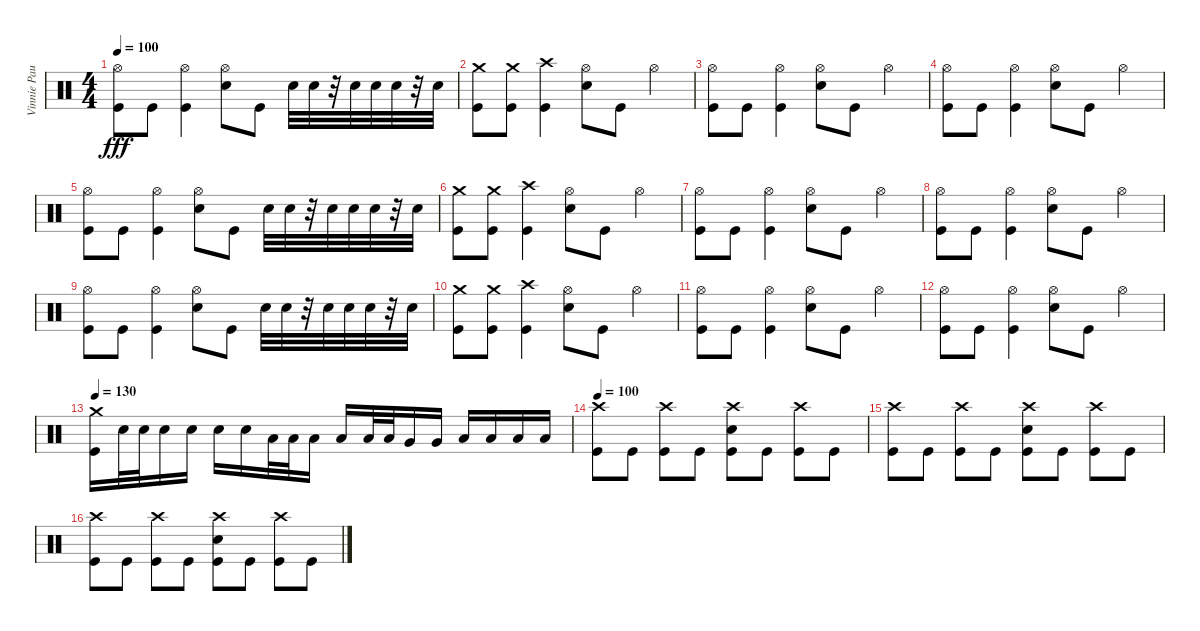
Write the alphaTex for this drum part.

\track ("Vinnie Paul (Drums)" "Vinnie Pau") {instrument percussion}
\staff {score}
\articulation defaults
\ts (4 4)
\tempo 100
\clef neutral
\ks c
("Kick (hit)" "Hi-Hat (open)").8{dy fff} "Kick (hit)".8 ("Kick (hit)" "Hi-Hat (open)").4 ("Electric Snare (hit)" "Hi-Hat (open)").8 "Kick (hit)".8 "Electric Snare (hit)".32 "Electric Snare (hit)".32 r.32 "Electric Snare (hit)".32 "Electric Snare (hit)".32 "Electric Snare (hit)".32 r.32 "Electric Snare (hit)".32 |
("Kick (hit)" "Crash medium (hit)").8 ("Kick (hit)" "Crash medium (hit)").8 ("Kick (hit)" "Crash high (hit)").4 ("Hi-Hat (open)" "Electric Snare (hit)").8 "Kick (hit)".8 "Hi-Hat (open)".4 |
("Kick (hit)" "Hi-Hat (open)").8 "Kick (hit)".8 ("Kick (hit)" "Hi-Hat (open)").4 ("Electric Snare (hit)" "Hi-Hat (open)").8 "Kick (hit)".8 "Hi-Hat (open)".4 |
("Kick (hit)" "Hi-Hat (open)").8 "Kick (hit)".8 ("Kick (hit)" "Hi-Hat (open)").4 ("Electric Snare (hit)" "Hi-Hat (open)").8 "Kick (hit)".8 "Hi-Hat (open)".4 |
("Kick (hit)" "Hi-Hat (open)").8 "Kick (hit)".8 ("Kick (hit)" "Hi-Hat (open)").4 ("Electric Snare (hit)" "Hi-Hat (open)").8 "Kick (hit)".8 "Electric Snare (hit)".32 "Electric Snare (hit)".32 r.32 "Electric Snare (hit)".32 "Electric Snare (hit)".32 "Electric Snare (hit)".32 r.32 "Electric Snare (hit)".32 |
("Kick (hit)" "Crash medium (hit)").8 ("Kick (hit)" "Crash medium (hit)").8 ("Kick (hit)" "Crash high (hit)").4 ("Hi-Hat (open)" "Electric Snare (hit)").8 "Kick (hit)".8 "Hi-Hat (open)".4 |
("Kick (hit)" "Hi-Hat (open)").8 "Kick (hit)".8 ("Kick (hit)" "Hi-Hat (open)").4 ("Electric Snare (hit)" "Hi-Hat (open)").8 "Kick (hit)".8 "Hi-Hat (open)".4 |
("Kick (hit)" "Hi-Hat (open)").8 "Kick (hit)".8 ("Kick (hit)" "Hi-Hat (open)").4 ("Electric Snare (hit)" "Hi-Hat (open)").8 "Kick (hit)".8 "Hi-Hat (open)".4 |
("Kick (hit)" "Hi-Hat (open)").8 "Kick (hit)".8 ("Kick (hit)" "Hi-Hat (open)").4 ("Electric Snare (hit)" "Hi-Hat (open)").8 "Kick (hit)".8 "Electric Snare (hit)".32 "Electric Snare (hit)".32 r.32 "Electric Snare (hit)".32 "Electric Snare (hit)".32 "Electric Snare (hit)".32 r.32 "Electric Snare (hit)".32 |
("Kick (hit)" "Crash medium (hit)").8 ("Kick (hit)" "Crash medium (hit)").8 ("Kick (hit)" "Crash high (hit)").4 ("Hi-Hat (open)" "Electric Snare (hit)").8 "Kick (hit)".8 "Hi-Hat (open)".4 |
("Kick (hit)" "Hi-Hat (open)").8 "Kick (hit)".8 ("Kick (hit)" "Hi-Hat (open)").4 ("Electric Snare (hit)" "Hi-Hat (open)").8 "Kick (hit)".8 "Hi-Hat (open)".4 |
("Kick (hit)" "Hi-Hat (open)").8 "Kick (hit)".8 ("Kick (hit)" "Hi-Hat (open)").4 ("Electric Snare (hit)" "Hi-Hat (open)").8 "Kick (hit)".8 "Hi-Hat (open)".4 |
\tempo 130
("Kick (hit)" "Crash medium (hit)").16 "Electric Snare (hit)".32 "Electric Snare (hit)".32 "Electric Snare (hit)".16 "Electric Snare (hit)".16 "Electric Snare (hit)".16 "Electric Snare (hit)".16 "Low Tom (hit)".32 "Low Tom (hit)".32 "Low Tom (hit)".16 "Low Tom (hit)".16 "Low Tom (hit)".32 "Low Tom (hit)".32 "Very Low Tom (hit)".16 "Very Low Tom (hit)".16 "Low Floor Tom (hit)".16 "Low Floor Tom (hit)".16 "Low Floor Tom (hit)".16 "Low Floor Tom (hit)".16 |
\tempo 100
("Kick (hit)" "Crash high (hit)").8 "Kick (hit)".8 ("Kick (hit)" "Crash high (hit)").8 "Kick (hit)".8 ("Electric Snare (hit)" "Kick (hit)" "Crash high (hit)").8 "Kick (hit)".8 ("Kick (hit)" "Crash high (hit)").8 "Kick (hit)".8 |
("Kick (hit)" "Crash high (hit)").8 "Kick (hit)".8 ("Kick (hit)" "Crash high (hit)").8 "Kick (hit)".8 ("Electric Snare (hit)" "Kick (hit)" "Crash high (hit)").8 "Kick (hit)".8 ("Kick (hit)" "Crash high (hit)").8 "Kick (hit)".8 |
("Kick (hit)" "Crash high (hit)").8 "Kick (hit)".8 ("Kick (hit)" "Crash high (hit)").8 "Kick (hit)".8 ("Electric Snare (hit)" "Kick (hit)" "Crash high (hit)").8 "Kick (hit)".8 ("Kick (hit)" "Crash high (hit)").8 "Kick (hit)".8
